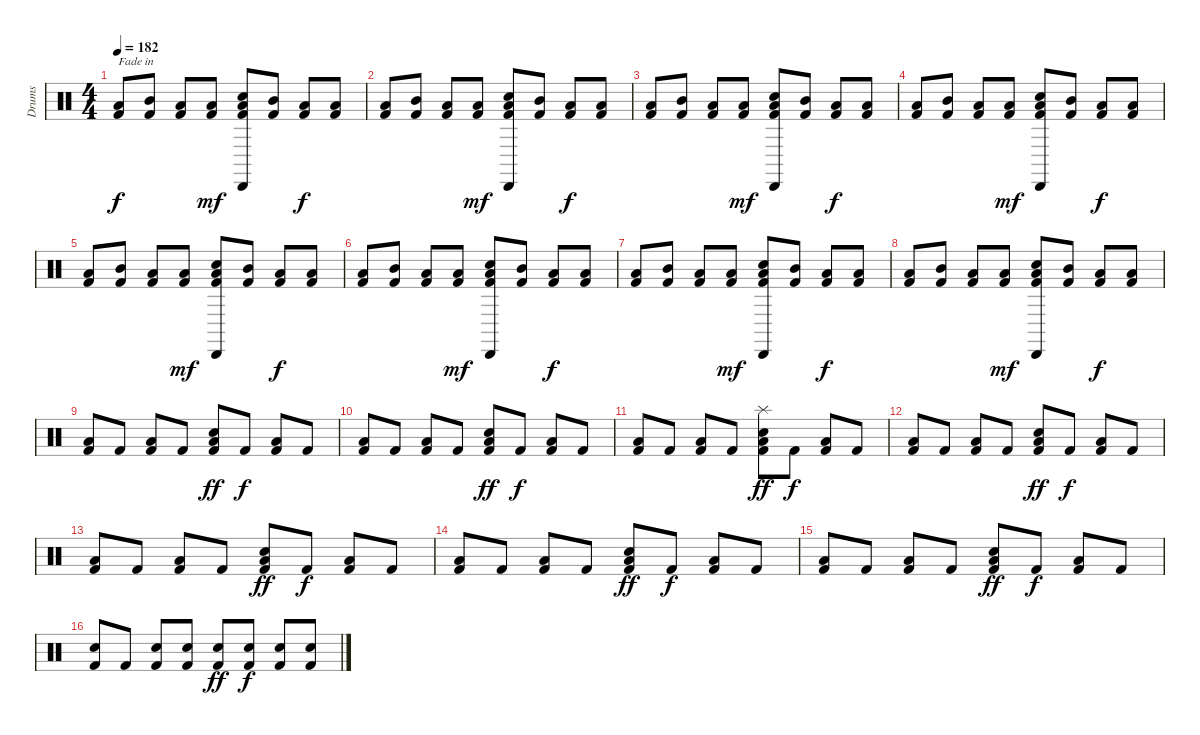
\track ("Drums" "Drums") {instrument percussion}
\staff {score}
\articulation defaults
\ts (4 4)
\tempo 182
\clef neutral
\ks c
("Low Floor Tom (hit)" "Kick (hit) 2").8{txt "Fade in" dy f} ("Mid Tom (hit)" "Kick (hit) 2").8 ("Low Tom (hit)" "Kick (hit) 2").8 ("Low Floor Tom (hit)" "Kick (hit) 2").8{dy mf} ("Cabasa (hit)" "Low Floor Tom (hit)" "Snare (hit) 2" "Kick (hit) 2").8 ("Mid Tom (hit)" "Kick (hit) 2").8 ("Low Tom (hit)" "Kick (hit) 2").8{dy f} ("Low Tom (hit)" "Kick (hit) 2").8 |
("Low Floor Tom (hit)" "Kick (hit) 2").8 ("Mid Tom (hit)" "Kick (hit) 2").8 ("Low Tom (hit)" "Kick (hit) 2").8 ("Low Floor Tom (hit)" "Kick (hit) 2").8{dy mf} ("Cabasa (hit)" "Low Floor Tom (hit)" "Snare (hit) 2" "Kick (hit) 2").8 ("Mid Tom (hit)" "Kick (hit) 2").8 ("Low Tom (hit)" "Kick (hit) 2").8{dy f} ("Low Tom (hit)" "Kick (hit) 2").8 |
("Low Floor Tom (hit)" "Kick (hit) 2").8 ("Mid Tom (hit)" "Kick (hit) 2").8 ("Low Tom (hit)" "Kick (hit) 2").8 ("Low Floor Tom (hit)" "Kick (hit) 2").8{dy mf} ("Cabasa (hit)" "Low Floor Tom (hit)" "Snare (hit) 2" "Kick (hit) 2").8 ("Mid Tom (hit)" "Kick (hit) 2").8 ("Low Tom (hit)" "Kick (hit) 2").8{dy f} ("Low Tom (hit)" "Kick (hit) 2").8 |
("Low Floor Tom (hit)" "Kick (hit) 2").8 ("Mid Tom (hit)" "Kick (hit) 2").8 ("Low Tom (hit)" "Kick (hit) 2").8 ("Low Floor Tom (hit)" "Kick (hit) 2").8{dy mf} ("Cabasa (hit)" "Low Floor Tom (hit)" "Snare (hit) 2" "Kick (hit) 2").8 ("Mid Tom (hit)" "Kick (hit) 2").8 ("Low Tom (hit)" "Kick (hit) 2").8{dy f} ("Low Tom (hit)" "Kick (hit) 2").8 |
("Low Floor Tom (hit)" "Kick (hit) 2").8 ("Mid Tom (hit)" "Kick (hit) 2").8 ("Low Tom (hit)" "Kick (hit) 2").8 ("Low Floor Tom (hit)" "Kick (hit) 2").8{dy mf} ("Cabasa (hit)" "Low Floor Tom (hit)" "Snare (hit) 2" "Kick (hit) 2").8 ("Mid Tom (hit)" "Kick (hit) 2").8 ("Low Tom (hit)" "Kick (hit) 2").8{dy f} ("Low Tom (hit)" "Kick (hit) 2").8 |
("Low Floor Tom (hit)" "Kick (hit) 2").8 ("Mid Tom (hit)" "Kick (hit) 2").8 ("Low Tom (hit)" "Kick (hit) 2").8 ("Low Floor Tom (hit)" "Kick (hit) 2").8{dy mf} ("Cabasa (hit)" "Low Floor Tom (hit)" "Snare (hit) 2" "Kick (hit) 2").8 ("Mid Tom (hit)" "Kick (hit) 2").8 ("Low Tom (hit)" "Kick (hit) 2").8{dy f} ("Low Tom (hit)" "Kick (hit) 2").8 |
("Low Floor Tom (hit)" "Kick (hit) 2").8 ("Mid Tom (hit)" "Kick (hit) 2").8 ("Low Tom (hit)" "Kick (hit) 2").8 ("Low Floor Tom (hit)" "Kick (hit) 2").8{dy mf} ("Cabasa (hit)" "Low Floor Tom (hit)" "Snare (hit) 2" "Kick (hit) 2").8 ("Mid Tom (hit)" "Kick (hit) 2").8 ("Low Tom (hit)" "Kick (hit) 2").8{dy f} ("Low Tom (hit)" "Kick (hit) 2").8 |
("Low Floor Tom (hit)" "Kick (hit) 2").8 ("Mid Tom (hit)" "Kick (hit) 2").8 ("Low Tom (hit)" "Kick (hit) 2").8 ("Low Floor Tom (hit)" "Kick (hit) 2").8{dy mf} ("Cabasa (hit)" "Low Floor Tom (hit)" "Snare (hit) 2" "Kick (hit) 2").8 ("Mid Tom (hit)" "Kick (hit) 2").8 ("Low Tom (hit)" "Kick (hit) 2").8{dy f} ("Low Tom (hit)" "Kick (hit) 2").8 |
("Low Floor Tom (hit)" "Kick (hit) 2").8 "Kick (hit) 2".8 ("Low Tom (hit)" "Kick (hit) 2").8 "Kick (hit) 2".8 ("Low Tom (hit)" "Snare (hit) 2" "Kick (hit) 2").8{dy ff} "Kick (hit) 2".8{dy f} ("Low Tom (hit)" "Kick (hit) 2").8 "Kick (hit) 2".8 |
("Low Floor Tom (hit)" "Kick (hit) 2").8 "Kick (hit) 2".8 ("Low Tom (hit)" "Kick (hit) 2").8 "Kick (hit) 2".8 ("Low Tom (hit)" "Snare (hit) 2" "Kick (hit) 2").8{dy ff} "Kick (hit) 2".8{dy f} ("Low Tom (hit)" "Kick (hit) 2").8 "Kick (hit) 2".8 |
("Low Floor Tom (hit)" "Kick (hit) 2").8 "Kick (hit) 2".8 ("Low Tom (hit)" "Kick (hit) 2").8 "Kick (hit) 2".8 ("Splash (hit)" "Low Tom (hit)" "Snare (hit) 2" "Kick (hit) 2").8{dy ff} "Kick (hit) 2".8{dy f} ("Low Tom (hit)" "Kick (hit) 2").8 "Kick (hit) 2".8 |
("Low Floor Tom (hit)" "Kick (hit) 2").8 "Kick (hit) 2".8 ("Low Tom (hit)" "Kick (hit) 2").8 "Kick (hit) 2".8 ("Low Tom (hit)" "Snare (hit) 2" "Kick (hit) 2").8{dy ff} "Kick (hit) 2".8{dy f} ("Low Tom (hit)" "Kick (hit) 2").8 "Kick (hit) 2".8 |
("Low Floor Tom (hit)" "Kick (hit) 2").8 "Kick (hit) 2".8 ("Low Tom (hit)" "Kick (hit) 2").8 "Kick (hit) 2".8 ("Low Tom (hit)" "Snare (hit) 2" "Kick (hit) 2").8{dy ff} "Kick (hit) 2".8{dy f} ("Low Tom (hit)" "Kick (hit) 2").8 "Kick (hit) 2".8 |
("Low Floor Tom (hit)" "Kick (hit) 2").8 "Kick (hit) 2".8 ("Low Tom (hit)" "Kick (hit) 2").8 "Kick (hit) 2".8 ("Low Tom (hit)" "Snare (hit) 2" "Kick (hit) 2").8{dy ff} "Kick (hit) 2".8{dy f} ("Low Tom (hit)" "Kick (hit) 2").8 "Kick (hit) 2".8 |
("Low Floor Tom (hit)" "Kick (hit) 2").8 "Kick (hit) 2".8 ("Low Tom (hit)" "Kick (hit) 2").8 "Kick (hit) 2".8 ("Low Tom (hit)" "Snare (hit) 2" "Kick (hit) 2").8{dy ff} "Kick (hit) 2".8{dy f} ("Low Tom (hit)" "Kick (hit) 2").8 "Kick (hit) 2".8 |
("Snare (hit) 2" "Kick (hit) 2").8 "Kick (hit) 2".8 ("Snare (hit) 2" "Kick (hit) 2").8 ("Snare (hit) 2" "Kick (hit) 2").8 ("Snare (hit) 2" "Kick (hit) 2").8{dy ff} ("Snare (hit) 2" "Kick (hit) 2").8{dy f} ("Snare (hit) 2" "Kick (hit) 2").8 ("Snare (hit) 2" "Kick (hit) 2").8
